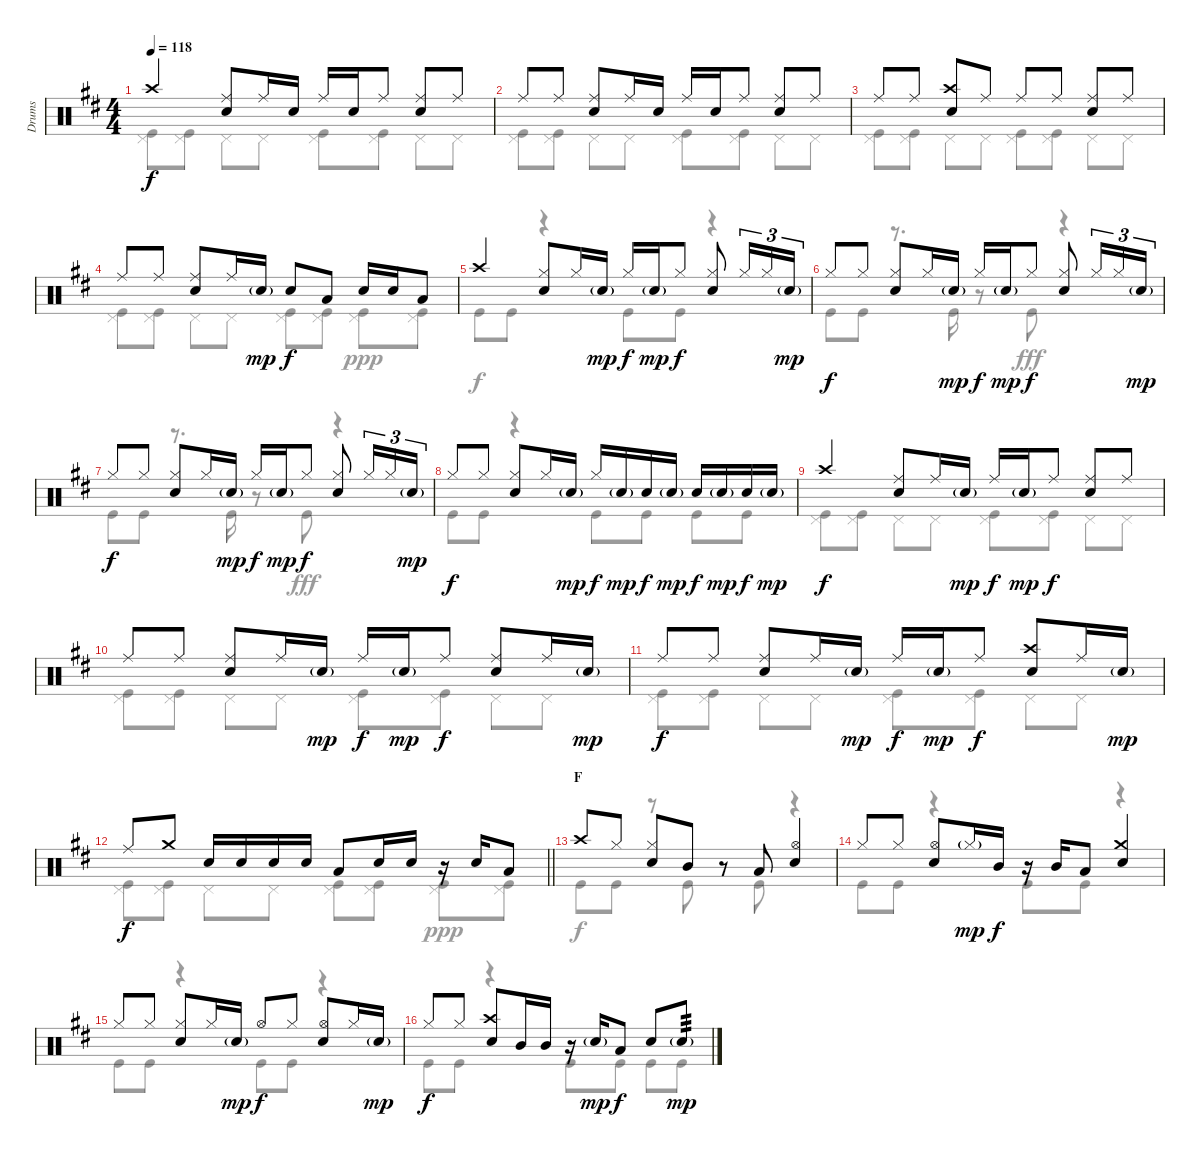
\track ("Drums" "Drums") {instrument percussion}
\staff {score}
\articulation defaults
\voice
\ts (4 4)
\tempo 118
\clef neutral
\ks d "Crash high (hit)".4{dy f}
("Ride (middle)" "Snare (hit) 2").8 "Ride (middle)".16 "Snare (hit) 2".16 "Ride (middle)".16 "Snare (hit) 2".16 "Ride (middle)".8 ("Ride (middle)" "Snare (hit) 2").8 "Ride (middle)".8 |
"Ride (middle)".8 "Ride (middle)".8 ("Ride (middle)" "Snare (hit) 2").8 "Ride (middle)".16 "Snare (hit) 2".16 "Ride (middle)".16 "Snare (hit) 2".16 "Ride (middle)".8 ("Ride (middle)" "Snare (hit) 2").8 "Ride (middle)".8 |
"Ride (middle)".8 "Ride (middle)".8 ("Crash high (hit)" "Snare (hit) 2").8 "Ride (middle)".8 "Ride (middle)".8 "Ride (middle)".8 ("Ride (middle)" "Snare (hit) 2").8 "Ride (middle)".8 |
"Ride (middle)".8 "Ride (middle)".8 ("Ride (middle)" "Snare (hit) 2").8 "Ride (middle)".16 "Snare (hit) 2"{g}.16{dy mp} "Snare (hit) 2".8{dy f} "Low Tom (hit)".8 "Snare (hit) 2".16 "Snare (hit) 2".16 "Low Tom (hit)".8 |
"Crash high (hit)".4 ("Hi-Hat (closed)" "Snare (hit) 2").8 "Hi-Hat (closed)".16 "Snare (hit) 2"{g}.16{dy mp} "Hi-Hat (closed)".16{dy f} "Snare (hit) 2"{g}.16{dy mp} "Hi-Hat (closed)".8{dy f} ("Hi-Hat (closed)" "Snare (hit) 2").8 "Hi-Hat (closed)".16{tu (3 2)} "Hi-Hat (closed)".16{tu (3 2)} "Snare (hit) 2"{g}.16{tu (3 2) dy mp} |
"Hi-Hat (closed)".8{dy f} "Hi-Hat (closed)".8 ("Hi-Hat (closed)" "Snare (hit) 2").8 "Hi-Hat (closed)".16 "Snare (hit) 2"{g}.16{dy mp} "Hi-Hat (closed)".16{dy f} "Snare (hit) 2"{g}.16{dy mp} "Hi-Hat (closed)".8{dy f} ("Hi-Hat (closed)" "Snare (hit) 2").8 "Hi-Hat (closed)".16{tu (3 2)} "Hi-Hat (closed)".16{tu (3 2)} "Snare (hit) 2"{g}.16{tu (3 2) dy mp} |
"Hi-Hat (closed)".8{dy f} "Hi-Hat (closed)".8 ("Hi-Hat (closed)" "Snare (hit) 2").8 "Hi-Hat (closed)".16 "Snare (hit) 2"{g}.16{dy mp} "Hi-Hat (closed)".16{dy f} "Snare (hit) 2"{g}.16{dy mp} "Hi-Hat (closed)".8{dy f} ("Hi-Hat (closed)" "Snare (hit) 2").8 "Hi-Hat (closed)".16{tu (3 2)} "Hi-Hat (closed)".16{tu (3 2)} "Snare (hit) 2"{g}.16{tu (3 2) dy mp} |
"Hi-Hat (closed)".8{dy f} "Hi-Hat (closed)".8 ("Hi-Hat (closed)" "Snare (hit) 2").8 "Hi-Hat (closed)".16 "Snare (hit) 2"{g}.16{dy mp} "Hi-Hat (closed)".16{dy f} "Snare (hit) 2"{g}.16{dy mp} "Snare (hit) 2".16{dy f} "Snare (hit) 2"{g}.16{dy mp} "Snare (hit) 2".16{dy f} "Snare (hit) 2"{g}.16{dy mp} "Snare (hit) 2".16{dy f} "Snare (hit) 2"{g}.16{dy mp} |
"Crash high (hit)".4{dy f} ("Ride (middle)" "Snare (hit) 2").8 "Ride (middle)".16 "Snare (hit) 2"{g}.16{dy mp} "Ride (middle)".16{dy f} "Snare (hit) 2"{g}.16{dy mp} "Ride (middle)".8{dy f} ("Ride (middle)" "Snare (hit) 2").8 "Ride (middle)".8 |
"Ride (middle)".8 "Ride (middle)".8 ("Ride (middle)" "Snare (hit) 2").8 "Ride (middle)".16 "Snare (hit) 2"{g}.16{dy mp} "Ride (middle)".16{dy f} "Snare (hit) 2"{g}.16{dy mp} "Ride (middle)".8{dy f} ("Ride (middle)" "Snare (hit) 2").8 "Ride (middle)".16 "Snare (hit) 2"{g}.16{dy mp} |
"Ride (middle)".8{dy f} "Ride (middle)".8 ("Ride (middle)" "Snare (hit) 2").8 "Ride (middle)".16 "Snare (hit) 2"{g}.16{dy mp} "Ride (middle)".16{dy f} "Snare (hit) 2"{g}.16{dy mp} "Ride (middle)".8{dy f} ("Crash high (hit)" "Snare (hit) 2").8 "Ride (middle)".16 "Snare (hit) 2"{g}.16{dy mp} |
\barLineRight lightlight "Ride (middle)".8{dy f} "Crash medium (hit)".8 "Snare (hit) 2".16 "Snare (hit) 2".16 "Snare (hit) 2".16 "Snare (hit) 2".16 "Low Tom (hit)".8 "Snare (hit) 2".16 "Snare (hit) 2".16
r.16 "Snare (hit) 2".16 "Low Tom (hit)".8 |
\section ("" "F")
"Crash high (hit)".8 "Hi-Hat (closed)".8 ("Hi-Hat (closed)" "Snare (hit) 2").8 "Mid Tom (hit)".8 r.8 "Low Tom (hit)".8 ("Hi-Hat (open)" "Snare (hit) 2").4 |
"Hi-Hat (closed)".8 "Hi-Hat (closed)".8 ("Hi-Hat (open)" "Snare (hit) 2").8 "Hi-Hat (closed)"{g}.16{dy mp} "Mid Tom (hit)".16{dy f} r.16 "Mid Tom (hit)".16 "Low Tom (hit)".8 ("Crash medium (hit)" "Snare (hit) 2").4 |
"Hi-Hat (closed)".8 "Hi-Hat (closed)".8 ("Hi-Hat (closed)" "Snare (hit) 2").8 "Hi-Hat (closed)".16 "Snare (hit) 2"{g}.16{dy mp} "Hi-Hat (open)".8{dy f} "Hi-Hat (closed)".8 ("Hi-Hat (open)" "Snare (hit) 2").8 "Hi-Hat (closed)".16 "Snare (hit) 2"{g}.16{dy mp} |
"Hi-Hat (closed)".8{dy f} "Hi-Hat (closed)".8 ("Crash high (hit)" "Snare (hit) 2").8 "Mid Tom (hit)".16 "Mid Tom (hit)".16 r.16 "Snare (hit) 2"{g}.16{dy mp} "Low Tom (hit)".8{dy f} "Snare (hit) 2".8 "Snare (hit) 2"{g}.8{tp 3 dy mp}
\voice
\clef neutral
\ottava regular
\simile none
\ks d
("Pedal Hi-Hat (hit)" "Kick (hit)").8{dy f} ("Pedal Hi-Hat (hit)" "Kick (hit)").8 "Pedal Hi-Hat (hit)".8 "Pedal Hi-Hat (hit)".8 ("Pedal Hi-Hat (hit)" "Kick (hit)").8 ("Pedal Hi-Hat (hit)" "Kick (hit)").8 "Pedal Hi-Hat (hit)".8 "Pedal Hi-Hat (hit)".8 |
("Pedal Hi-Hat (hit)" "Kick (hit)").8 ("Pedal Hi-Hat (hit)" "Kick (hit)").8 "Pedal Hi-Hat (hit)".8 "Pedal Hi-Hat (hit)".8 ("Pedal Hi-Hat (hit)" "Kick (hit)").8 ("Pedal Hi-Hat (hit)" "Kick (hit)").8 "Pedal Hi-Hat (hit)".8 "Pedal Hi-Hat (hit)".8 |
("Pedal Hi-Hat (hit)" "Kick (hit)").8 ("Pedal Hi-Hat (hit)" "Kick (hit)").8 "Pedal Hi-Hat (hit)".8 "Pedal Hi-Hat (hit)".8 ("Pedal Hi-Hat (hit)" "Kick (hit)").8 ("Pedal Hi-Hat (hit)" "Kick (hit)").8 "Pedal Hi-Hat (hit)".8 "Pedal Hi-Hat (hit)".8 |
("Pedal Hi-Hat (hit)" "Kick (hit)").8 ("Pedal Hi-Hat (hit)" "Kick (hit)").8 "Pedal Hi-Hat (hit)".8 "Pedal Hi-Hat (hit)".8 ("Pedal Hi-Hat (hit)" "Kick (hit)").8 ("Pedal Hi-Hat (hit)" "Kick (hit)").8 ("Pedal Hi-Hat (hit)" "Kick (hit)").8{dy ppp} ("Pedal Hi-Hat (hit)" "Kick (hit)").8 |
"Kick (hit)".8{dy f} "Kick (hit)".8 r.4 "Kick (hit)".8 "Kick (hit)".8 r.4 |
"Kick (hit)".8 "Kick (hit)".8 r.8{d} "Kick (hit)".16 r.8 "Kick (hit)".8{dy fff} r.4 |
"Kick (hit)".8{dy f} "Kick (hit)".8 r.8{d} "Kick (hit)".16 r.8 "Kick (hit)".8{dy fff} r.4 |
"Kick (hit)".8{dy f} "Kick (hit)".8 r.4 "Kick (hit)".8 "Kick (hit)".8 "Kick (hit)".8 "Kick (hit)".8 |
("Pedal Hi-Hat (hit)" "Kick (hit)").8 ("Pedal Hi-Hat (hit)" "Kick (hit)").8 "Pedal Hi-Hat (hit)".8 "Pedal Hi-Hat (hit)".8 ("Pedal Hi-Hat (hit)" "Kick (hit)").8 ("Pedal Hi-Hat (hit)" "Kick (hit)").8 "Pedal Hi-Hat (hit)".8 "Pedal Hi-Hat (hit)".8 |
("Pedal Hi-Hat (hit)" "Kick (hit)").8 ("Pedal Hi-Hat (hit)" "Kick (hit)").8 "Pedal Hi-Hat (hit)".8 "Pedal Hi-Hat (hit)".8 ("Pedal Hi-Hat (hit)" "Kick (hit)").8 ("Pedal Hi-Hat (hit)" "Kick (hit)").8 "Pedal Hi-Hat (hit)".8 "Pedal Hi-Hat (hit)".8 |
("Pedal Hi-Hat (hit)" "Kick (hit)").8 ("Pedal Hi-Hat (hit)" "Kick (hit)").8 "Pedal Hi-Hat (hit)".8 "Pedal Hi-Hat (hit)".8 ("Pedal Hi-Hat (hit)" "Kick (hit)").8 ("Pedal Hi-Hat (hit)" "Kick (hit)").8 "Pedal Hi-Hat (hit)".8 "Pedal Hi-Hat (hit)".8 |
\barLineRight lightlight
("Pedal Hi-Hat (hit)" "Kick (hit)").8 ("Pedal Hi-Hat (hit)" "Kick (hit)").8 "Pedal Hi-Hat (hit)".8 "Pedal Hi-Hat (hit)".8 ("Pedal Hi-Hat (hit)" "Kick (hit)").8 ("Pedal Hi-Hat (hit)" "Kick (hit)").8 ("Pedal Hi-Hat (hit)" "Kick (hit)").8{dy ppp} ("Pedal Hi-Hat (hit)" "Kick (hit)").8 |
"Kick (hit)".8{dy f} "Kick (hit)".8 r.8 "Kick (hit)".8 r.8 "Kick (hit)".8 r.4 |
"Kick (hit)".8 "Kick (hit)".8 r.4 "Kick (hit)".8 "Kick (hit)".8 r.4 |
"Kick (hit)".8 "Kick (hit)".8 r.4 "Kick (hit)".8 "Kick (hit)".8 r.4 |
"Kick (hit)".8 "Kick (hit)".8 r.4 "Kick (hit)".8 "Kick (hit)".8 "Kick (hit)".8 "Kick (hit)".8
